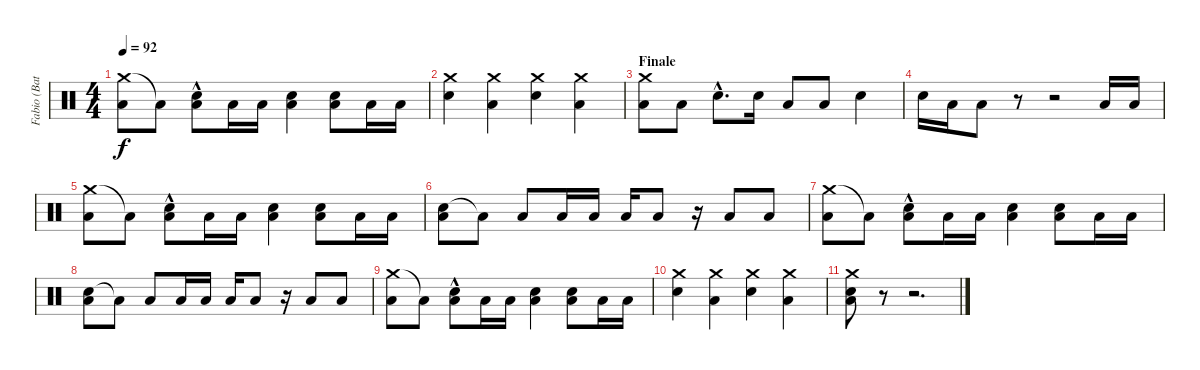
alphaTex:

\track ("Fabio (Batteria)" "Fabio (Bat") {instrument percussion}
\staff {score}
\articulation defaults
\ts (4 4)
\tempo 92
\clef neutral
\ks c
("Crash medium (hit)" "Low Tom (hit)").8{dy f} "Low Tom (hit)"{t}.8 ("Snare (hit) 2"{hac} "Low Tom (hit)").8 "Low Tom (hit)".16 "Low Tom (hit)".16 ("Snare (hit) 2" "Low Tom (hit)").4 ("Snare (hit) 2" "Low Tom (hit)").8 "Low Tom (hit)".16 "Low Tom (hit)".16 |
("Crash medium (hit)" "Snare (hit) 2").4 ("Crash medium (hit)" "Low Tom (hit)").4 ("Crash medium (hit)" "Snare (hit) 2").4 ("Crash medium (hit)" "Low Tom (hit)").4 |
\section ("" "Finale")
("Crash medium (hit)" "Low Tom (hit)").8 "Low Tom (hit)".8 "Snare (hit) 2"{hac}.8{d} "Snare (hit) 2".16 "Low Tom (hit)".8 "Low Tom (hit)".8 "Snare (hit) 2".4 |
"Snare (hit) 2".16 "Low Tom (hit)".16 "Low Tom (hit)".8 r.8 r.2 "Low Tom (hit)".16 "Low Tom (hit)".16 |
("Crash medium (hit)" "Low Tom (hit)").8 "Low Tom (hit)"{t}.8 ("Snare (hit) 2"{hac} "Low Tom (hit)").8 "Low Tom (hit)".16 "Low Tom (hit)".16 ("Snare (hit) 2" "Low Tom (hit)").4 ("Snare (hit) 2" "Low Tom (hit)").8 "Low Tom (hit)".16 "Low Tom (hit)".16 |
("Snare (hit) 2" "Low Tom (hit)").8 "Low Tom (hit)"{t}.8 "Low Tom (hit)".8 "Low Tom (hit)".16 "Low Tom (hit)".16 "Low Tom (hit)".16 "Low Tom (hit)".8 r.16 "Low Tom (hit)".8 "Low Tom (hit)".8 |
("Crash medium (hit)" "Low Tom (hit)").8 "Low Tom (hit)"{t}.8 ("Snare (hit) 2"{hac} "Low Tom (hit)").8 "Low Tom (hit)".16 "Low Tom (hit)".16 ("Snare (hit) 2" "Low Tom (hit)").4 ("Snare (hit) 2" "Low Tom (hit)").8 "Low Tom (hit)".16 "Low Tom (hit)".16 |
("Snare (hit) 2" "Low Tom (hit)").8 "Low Tom (hit)"{t}.8 "Low Tom (hit)".8 "Low Tom (hit)".16 "Low Tom (hit)".16 "Low Tom (hit)".16 "Low Tom (hit)".8 r.16 "Low Tom (hit)".8 "Low Tom (hit)".8 |
("Crash medium (hit)" "Low Tom (hit)").8 "Low Tom (hit)"{t}.8 ("Snare (hit) 2"{hac} "Low Tom (hit)").8 "Low Tom (hit)".16 "Low Tom (hit)".16 ("Snare (hit) 2" "Low Tom (hit)").4 ("Snare (hit) 2" "Low Tom (hit)").8 "Low Tom (hit)".16 "Low Tom (hit)".16 |
("Crash medium (hit)" "Snare (hit) 2").4 ("Crash medium (hit)" "Low Tom (hit)").4 ("Crash medium (hit)" "Snare (hit) 2").4 ("Crash medium (hit)" "Low Tom (hit)").4 |
("Crash medium (hit)" "Snare (hit) 2" "Low Tom (hit)").8 r.8 r.2{d}
